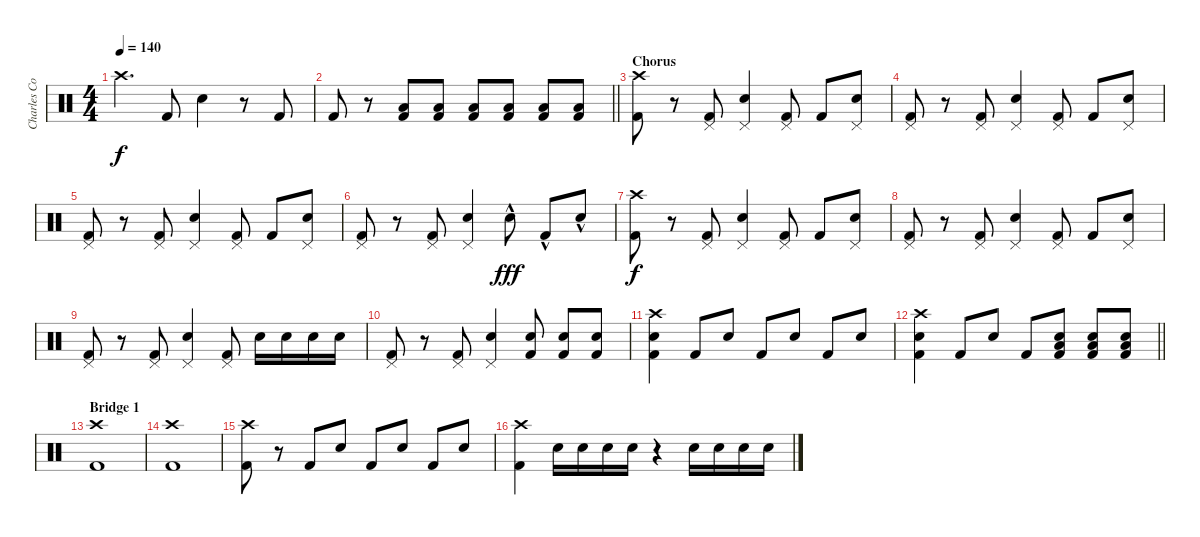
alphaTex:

\track ("Charles Comeau" "Charles Co") {instrument percussion}
\staff {score}
\articulation defaults
\ts (4 4)
\tempo 140
\clef neutral
\ks c "Crash high (hit)".4{d dy f} "Kick (hit) 2".8 "Snare (hit) 2".4
r.8 "Kick (hit) 2".8 |
\barLineRight lightlight "Kick (hit) 2".8
r.8 ("Low Tom (hit)" "Kick (hit) 2").8 ("Low Tom (hit)" "Kick (hit) 2").8 ("Low Tom (hit)" "Kick (hit) 2").8 ("Low Tom (hit)" "Kick (hit) 2").8 ("Low Tom (hit)" "Kick (hit) 2").8 ("Low Tom (hit)" "Kick (hit) 2").8 |
\section ("" "Chorus")
("Crash high (hit)" "Kick (hit) 2").8 r.8 ("Pedal Hi-Hat (hit)" "Kick (hit) 2").8 ("Pedal Hi-Hat (hit)" "Snare (hit) 2").4 ("Pedal Hi-Hat (hit)" "Kick (hit) 2").8 "Kick (hit) 2".8 ("Pedal Hi-Hat (hit)" "Snare (hit) 2").8 |
("Pedal Hi-Hat (hit)" "Kick (hit) 2").8 r.8 ("Pedal Hi-Hat (hit)" "Kick (hit) 2").8 ("Pedal Hi-Hat (hit)" "Snare (hit) 2").4 ("Pedal Hi-Hat (hit)" "Kick (hit) 2").8 "Kick (hit) 2".8 ("Pedal Hi-Hat (hit)" "Snare (hit) 2").8 |
("Pedal Hi-Hat (hit)" "Kick (hit) 2").8 r.8 ("Pedal Hi-Hat (hit)" "Kick (hit) 2").8 ("Pedal Hi-Hat (hit)" "Snare (hit) 2").4 ("Pedal Hi-Hat (hit)" "Kick (hit) 2").8 "Kick (hit) 2".8 ("Pedal Hi-Hat (hit)" "Snare (hit) 2").8 |
("Pedal Hi-Hat (hit)" "Kick (hit) 2").8 r.8 ("Pedal Hi-Hat (hit)" "Kick (hit) 2").8 ("Pedal Hi-Hat (hit)" "Snare (hit) 2").4 "Snare (hit) 2"{hac}.8{dy fff} "Kick (hit) 2"{hac}.8 "Snare (hit) 2"{hac}.8 |
("Crash high (hit)" "Kick (hit) 2").8{dy f} r.8 ("Pedal Hi-Hat (hit)" "Kick (hit) 2").8 ("Pedal Hi-Hat (hit)" "Snare (hit) 2").4 ("Pedal Hi-Hat (hit)" "Kick (hit) 2").8 "Kick (hit) 2".8 ("Pedal Hi-Hat (hit)" "Snare (hit) 2").8 |
("Pedal Hi-Hat (hit)" "Kick (hit) 2").8 r.8 ("Pedal Hi-Hat (hit)" "Kick (hit) 2").8 ("Pedal Hi-Hat (hit)" "Snare (hit) 2").4 ("Pedal Hi-Hat (hit)" "Kick (hit) 2").8 "Kick (hit) 2".8 ("Pedal Hi-Hat (hit)" "Snare (hit) 2").8 |
("Pedal Hi-Hat (hit)" "Kick (hit) 2").8 r.8 ("Pedal Hi-Hat (hit)" "Kick (hit) 2").8 ("Pedal Hi-Hat (hit)" "Snare (hit) 2").4 ("Pedal Hi-Hat (hit)" "Kick (hit) 2").8 "Snare (hit) 2".16 "Snare (hit) 2".16 "Snare (hit) 2".16 "Snare (hit) 2".16 |
("Pedal Hi-Hat (hit)" "Kick (hit) 2").8 r.8 ("Pedal Hi-Hat (hit)" "Kick (hit) 2").8 ("Pedal Hi-Hat (hit)" "Snare (hit) 2").4 ("Snare (hit) 2" "Kick (hit) 2").8 ("Snare (hit) 2" "Kick (hit) 2").8 ("Snare (hit) 2" "Kick (hit) 2").8 |
("Crash high (hit)" "Snare (hit) 2" "Kick (hit) 2").4 "Kick (hit) 2".8 "Snare (hit) 2".8 "Kick (hit) 2".8 "Snare (hit) 2".8 "Kick (hit) 2".8 "Snare (hit) 2".8 |
\barLineRight lightlight
("Crash high (hit)" "Snare (hit) 2" "Kick (hit) 2").4 "Kick (hit) 2".8 "Snare (hit) 2".8 "Kick (hit) 2".8 ("Snare (hit) 2" "Low Tom (hit)" "Kick (hit) 2").8 ("Snare (hit) 2" "Low Tom (hit)" "Kick (hit) 2").8 ("Snare (hit) 2" "Low Tom (hit)" "Kick (hit) 2").8 |
\section ("" "Bridge 1")
("Crash high (hit)" "Kick (hit) 2").1 |
("Crash high (hit)" "Kick (hit) 2").1 |
("Crash high (hit)" "Kick (hit) 2").8 r.8 "Kick (hit) 2".8 "Snare (hit) 2".8 "Kick (hit) 2".8 "Snare (hit) 2".8 "Kick (hit) 2".8 "Snare (hit) 2".8 |
("Crash high (hit)" "Kick (hit) 2").4 "Snare (hit) 2".16 "Snare (hit) 2".16 "Snare (hit) 2".16 "Snare (hit) 2".16 r.4 "Snare (hit) 2".16 "Snare (hit) 2".16 "Snare (hit) 2".16 "Snare (hit) 2".16
